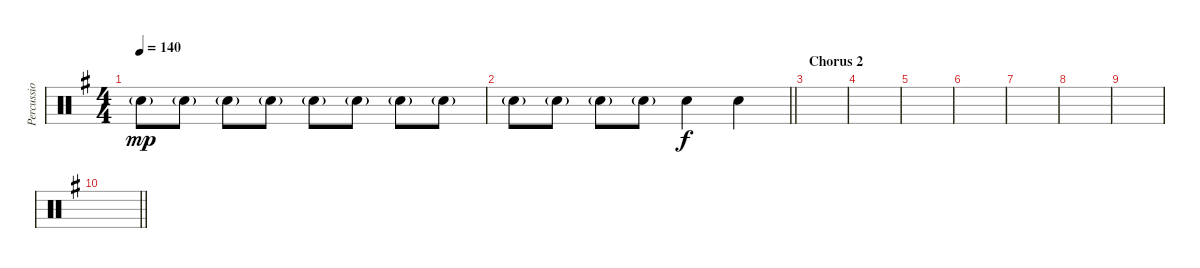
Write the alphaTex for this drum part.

\track (" Percussion" " Percussio") {instrument percussion}
\staff {score}
\articulation defaults
\ts (4 4)
\tempo 140
\clef neutral
\ks g "Snare (hit) 2"{g}.8{dy mp} "Snare (hit) 2"{g}.8 "Snare (hit) 2"{g}.8 "Snare (hit) 2"{g}.8 "Snare (hit) 2"{g}.8 "Snare (hit) 2"{g}.8 "Snare (hit) 2"{g}.8 "Snare (hit) 2"{g}.8
|
\barLineRight lightlight "Snare (hit) 2"{g}.8 "Snare (hit) 2"{g}.8 "Snare (hit) 2"{g}.8 "Snare (hit) 2"{g}.8 "Snare (hit) 2".4{dy f} "Snare (hit) 2".4
|
\section ("" "Chorus 2")
|
|
|
|
|
|
|
\barLineRight lightlight
